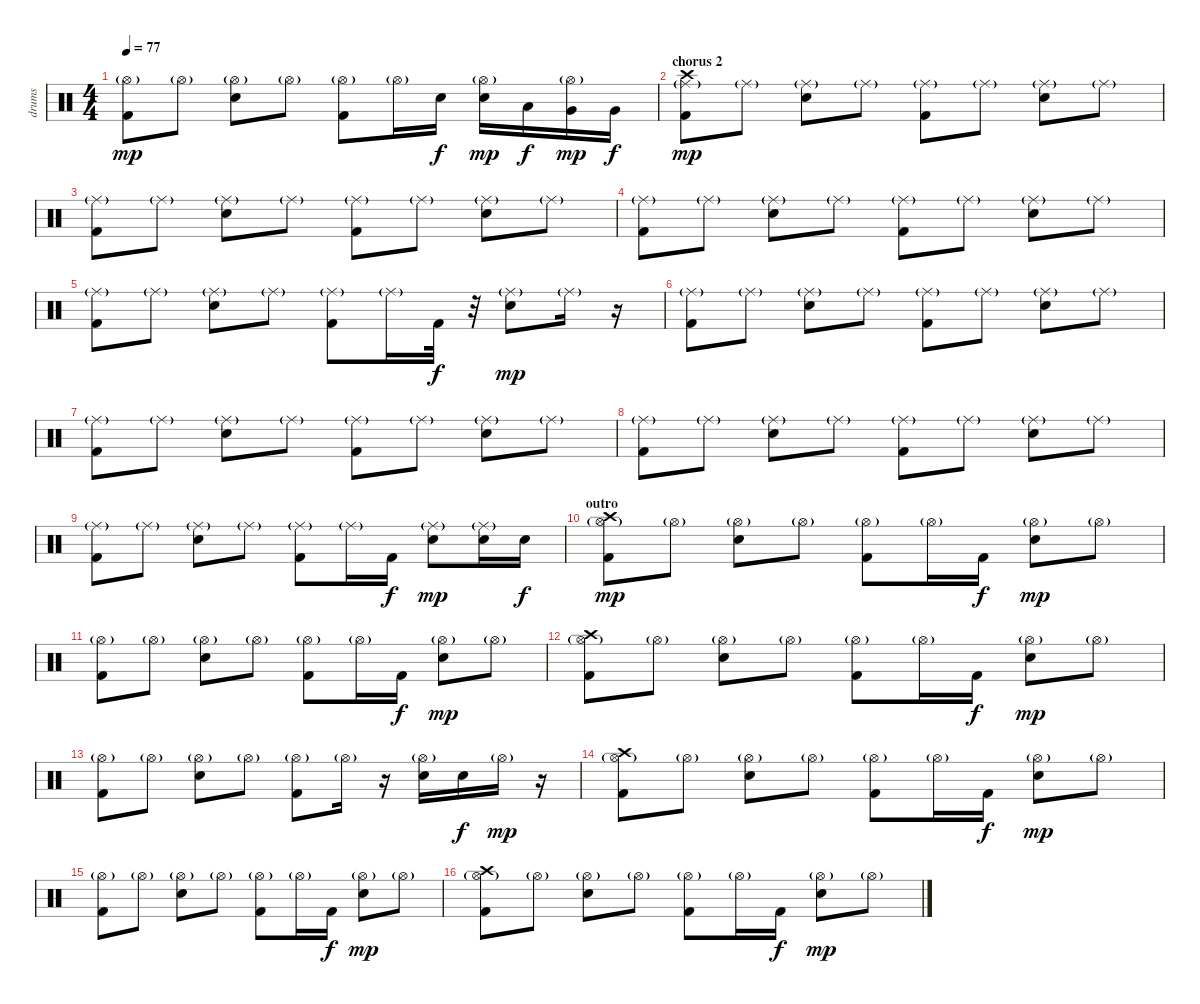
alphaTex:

\track ("drums" "drums") {instrument percussion}
\staff {score}
\articulation defaults
\ts (4 4)
\tempo 77
\clef neutral
\ks c
("Kick (hit) 2" "Hi-Hat (open)"{g}).8{dy mp} "Hi-Hat (open)"{g}.8 ("Snare (hit) 2" "Hi-Hat (open)"{g}).8 "Hi-Hat (open)"{g}.8 ("Kick (hit) 2" "Hi-Hat (open)"{g}).8 "Hi-Hat (open)"{g}.16 "Snare (hit) 2"{tr (38 16)}.16{dy f} ("Snare (hit) 2" "Hi-Hat (open)"{g}).16{dy mp} "Low Tom (hit)".16{dy f} ("Very Low Tom (hit)" "Hi-Hat (open)"{g}).16{dy mp} "Very Low Tom (hit)".16{dy f} |
\section ("" "chorus 2")
("Kick (hit) 2" "Ride (middle)"{g} "Crash high (hit)").8{dy mp volume 14} "Ride (middle)"{g}.8 ("Snare (hit) 2" "Ride (middle)"{g}).8 "Ride (middle)"{g}.8 ("Kick (hit) 2" "Ride (middle)"{g}).8 "Ride (middle)"{g}.8 ("Snare (hit) 2" "Ride (middle)"{g}).8 "Ride (middle)"{g}.8 |
("Kick (hit) 2" "Ride (middle)"{g}).8 "Ride (middle)"{g}.8 ("Snare (hit) 2" "Ride (middle)"{g}).8 "Ride (middle)"{g}.8 ("Kick (hit) 2" "Ride (middle)"{g}).8 "Ride (middle)"{g}.8 ("Snare (hit) 2" "Ride (middle)"{g}).8 "Ride (middle)"{g}.8 |
("Kick (hit) 2" "Ride (middle)"{g}).8 "Ride (middle)"{g}.8 ("Snare (hit) 2" "Ride (middle)"{g}).8 "Ride (middle)"{g}.8 ("Kick (hit) 2" "Ride (middle)"{g}).8 "Ride (middle)"{g}.8 ("Snare (hit) 2" "Ride (middle)"{g}).8 "Ride (middle)"{g}.8 |
("Kick (hit) 2" "Ride (middle)"{g}).8 "Ride (middle)"{g}.8 ("Snare (hit) 2" "Ride (middle)"{g}).8 "Ride (middle)"{g}.8 ("Kick (hit) 2" "Ride (middle)"{g}).8 "Ride (middle)"{g}.16 "Kick (hit) 2".32{dy f} r.32 ("Snare (hit) 2" "Ride (middle)"{g}).8{dy mp} "Ride (middle)"{g}.16 r.16 |
("Kick (hit) 2" "Ride (middle)"{g}).8 "Ride (middle)"{g}.8 ("Snare (hit) 2" "Ride (middle)"{g}).8 "Ride (middle)"{g}.8 ("Kick (hit) 2" "Ride (middle)"{g}).8 "Ride (middle)"{g}.8 ("Snare (hit) 2" "Ride (middle)"{g}).8 "Ride (middle)"{g}.8 |
("Kick (hit) 2" "Ride (middle)"{g}).8 "Ride (middle)"{g}.8 ("Snare (hit) 2" "Ride (middle)"{g}).8 "Ride (middle)"{g}.8 ("Kick (hit) 2" "Ride (middle)"{g}).8 "Ride (middle)"{g}.8 ("Snare (hit) 2" "Ride (middle)"{g}).8 "Ride (middle)"{g}.8 |
("Kick (hit) 2" "Ride (middle)"{g}).8 "Ride (middle)"{g}.8 ("Snare (hit) 2" "Ride (middle)"{g}).8 "Ride (middle)"{g}.8 ("Kick (hit) 2" "Ride (middle)"{g}).8 "Ride (middle)"{g}.8 ("Snare (hit) 2" "Ride (middle)"{g}).8 "Ride (middle)"{g}.8 |
("Kick (hit) 2" "Ride (middle)"{g}).8 "Ride (middle)"{g}.8 ("Snare (hit) 2" "Ride (middle)"{g}).8 "Ride (middle)"{g}.8 ("Kick (hit) 2" "Ride (middle)"{g}).8 "Ride (middle)"{g}.16 "Kick (hit) 2".16{dy f} ("Snare (hit) 2" "Ride (middle)"{g}).8{dy mp} ("Snare (hit) 2"{tr (38 16)} "Ride (middle)"{g}).16 "Snare (hit) 2".16{dy f} |
\section ("" "outro")
("Kick (hit) 2" "Hi-Hat (open)"{g} "Crash high (hit)").8{dy mp volume 12} "Hi-Hat (open)"{g}.8 ("Snare (hit) 2" "Hi-Hat (open)"{g}).8 "Hi-Hat (open)"{g}.8 ("Kick (hit) 2" "Hi-Hat (open)"{g}).8 "Hi-Hat (open)"{g}.16 "Kick (hit) 2".16{dy f} ("Snare (hit) 2" "Hi-Hat (open)"{g}).8{dy mp} "Hi-Hat (open)"{g}.8 |
("Kick (hit) 2" "Hi-Hat (open)"{g}).8 "Hi-Hat (open)"{g}.8 ("Snare (hit) 2" "Hi-Hat (open)"{g}).8 "Hi-Hat (open)"{g}.8 ("Kick (hit) 2" "Hi-Hat (open)"{g}).8 "Hi-Hat (open)"{g}.16 "Kick (hit) 2".16{dy f} ("Snare (hit) 2" "Hi-Hat (open)"{g}).8{dy mp} "Hi-Hat (open)"{g}.8 |
("Kick (hit) 2" "Hi-Hat (open)"{g} "Crash high (hit)").8 "Hi-Hat (open)"{g}.8 ("Snare (hit) 2" "Hi-Hat (open)"{g}).8 "Hi-Hat (open)"{g}.8 ("Kick (hit) 2" "Hi-Hat (open)"{g}).8 "Hi-Hat (open)"{g}.16 "Kick (hit) 2".16{dy f} ("Snare (hit) 2" "Hi-Hat (open)"{g}).8{dy mp} "Hi-Hat (open)"{g}.8 |
("Kick (hit) 2" "Hi-Hat (open)"{g}).8 "Hi-Hat (open)"{g}.8 ("Snare (hit) 2" "Hi-Hat (open)"{g}).8 "Hi-Hat (open)"{g}.8 ("Kick (hit) 2" "Hi-Hat (open)"{g}).8 "Hi-Hat (open)"{g}.16 r.16 ("Snare (hit) 2" "Hi-Hat (open)"{g}).16 "Snare (hit) 2".16{dy f} "Hi-Hat (open)"{g}.16{dy mp} r.16 |
("Kick (hit) 2" "Hi-Hat (open)"{g} "Crash high (hit)").8 "Hi-Hat (open)"{g}.8 ("Snare (hit) 2" "Hi-Hat (open)"{g}).8 "Hi-Hat (open)"{g}.8 ("Kick (hit) 2" "Hi-Hat (open)"{g}).8 "Hi-Hat (open)"{g}.16 "Kick (hit) 2".16{dy f} ("Snare (hit) 2" "Hi-Hat (open)"{g}).8{dy mp} "Hi-Hat (open)"{g}.8 |
("Kick (hit) 2" "Hi-Hat (open)"{g}).8 "Hi-Hat (open)"{g}.8 ("Snare (hit) 2" "Hi-Hat (open)"{g}).8 "Hi-Hat (open)"{g}.8 ("Kick (hit) 2" "Hi-Hat (open)"{g}).8 "Hi-Hat (open)"{g}.16 "Kick (hit) 2".16{dy f} ("Snare (hit) 2" "Hi-Hat (open)"{g}).8{dy mp} "Hi-Hat (open)"{g}.8 |
("Kick (hit) 2" "Hi-Hat (open)"{g} "Crash high (hit)").8 "Hi-Hat (open)"{g}.8 ("Snare (hit) 2" "Hi-Hat (open)"{g}).8 "Hi-Hat (open)"{g}.8 ("Kick (hit) 2" "Hi-Hat (open)"{g}).8 "Hi-Hat (open)"{g}.16 "Kick (hit) 2".16{dy f} ("Snare (hit) 2" "Hi-Hat (open)"{g}).8{dy mp} "Hi-Hat (open)"{g}.8
